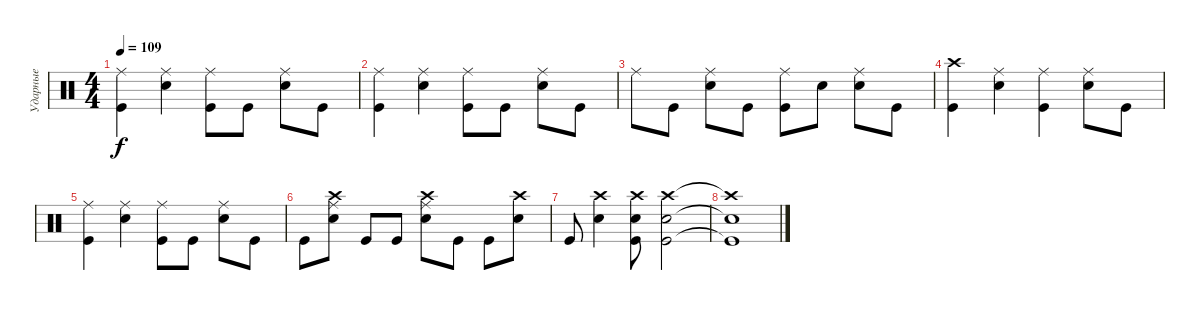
\track ("Ударные" "Ударные") {instrument percussion}
\staff {score}
\articulation defaults
\ts (4 4)
\tempo 109
\clef neutral
\ks c
("Kick (hit)" "Ride (middle)").4{dy f} ("Snare (hit) 2" "Ride (middle)").4 ("Kick (hit)" "Ride (middle)").8 "Kick (hit)".8 ("Snare (hit) 2" "Ride (middle)").8 "Kick (hit)".8 |
("Kick (hit)" "Ride (middle)").4 ("Snare (hit) 2" "Ride (middle)").4 ("Kick (hit)" "Ride (middle)").8 "Kick (hit)".8 ("Snare (hit) 2" "Ride (middle)").8 "Kick (hit)".8 |
"Ride (middle)".8 "Kick (hit)".8 ("Snare (hit) 2" "Ride (middle)").8 "Kick (hit)".8 ("Kick (hit)" "Ride (middle)").8 "Snare (hit) 2".8 ("Snare (hit) 2" "Ride (middle)").8 "Kick (hit)".8 |
("Kick (hit)" "Crash high (hit)").4 ("Snare (hit) 2" "Ride (middle)").4 ("Kick (hit)" "Ride (middle)").4 ("Snare (hit) 2" "Ride (middle)").8 "Kick (hit)".8 |
("Kick (hit)" "Ride (middle)").4 ("Snare (hit) 2" "Ride (middle)").4 ("Kick (hit)" "Ride (middle)").8 "Kick (hit)".8 ("Snare (hit) 2" "Ride (middle)").8 "Kick (hit)".8 |
"Kick (hit)".8 ("Snare (hit) 2" "Ride (middle)" "Crash high (hit)").8 "Kick (hit)".8 "Kick (hit)".8 ("Snare (hit) 2" "Ride (middle)" "Crash high (hit)").8 "Kick (hit)".8 "Kick (hit)".8 ("Snare (hit) 2" "Crash high (hit)").8 |
"Kick (hit)".8 ("Snare (hit) 2" "Crash high (hit)").4 ("Kick (hit)" "Snare (hit) 2" "Crash high (hit)").8 ("Kick (hit)" "Snare (hit) 2" "Crash high (hit)").2 |
("Kick (hit)"{t} "Snare (hit) 2"{t} "Crash high (hit)"{t}).1
